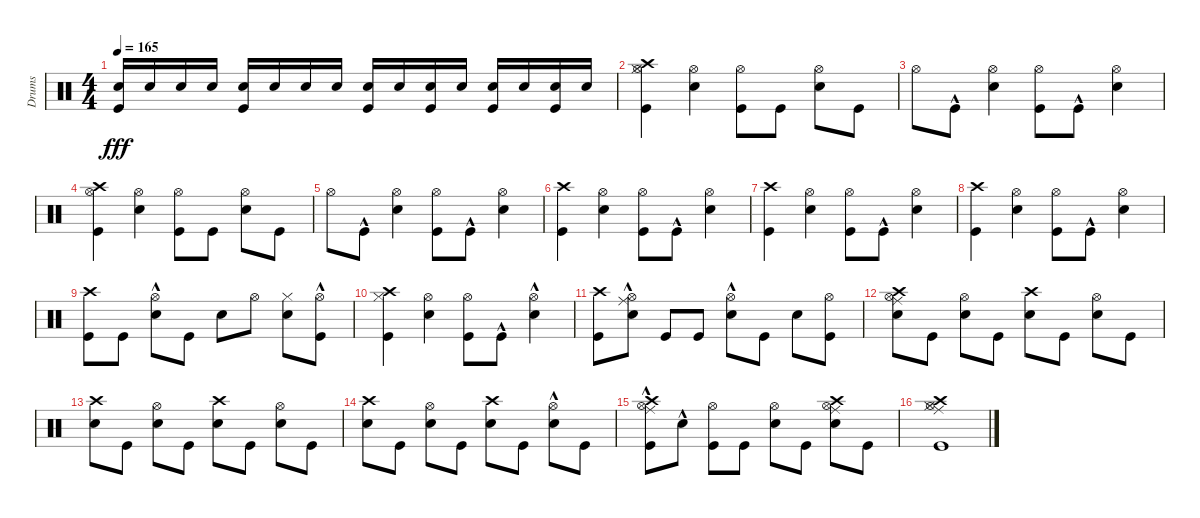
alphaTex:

\track ("Drums" "Drums") {instrument percussion}
\staff {score}
\articulation defaults
\ts (4 4)
\tempo 165
\clef neutral
\ks c
("Kick (hit)" "Snare (hit) 2").16{dy fff} "Snare (hit) 2".16 "Snare (hit) 2".16 "Snare (hit) 2".16 ("Kick (hit)" "Snare (hit) 2").16 "Snare (hit) 2".16 "Snare (hit) 2".16 "Snare (hit) 2".16 ("Kick (hit)" "Snare (hit) 2").16 "Snare (hit) 2".16 ("Kick (hit)" "Snare (hit) 2").16 "Snare (hit) 2".16 ("Kick (hit)" "Snare (hit) 2").16 "Snare (hit) 2".16 ("Kick (hit)" "Snare (hit) 2").16 "Snare (hit) 2".16 |
("Kick (hit)" "Hi-Hat (closed)" "Hi-Hat (open)" "Crash high (hit)").4 ("Snare (hit) 2" "Hi-Hat (open)").4 ("Kick (hit)" "Hi-Hat (open)").8 "Kick (hit)".8 ("Snare (hit) 2" "Hi-Hat (open)").8 "Kick (hit)".8 |
"Hi-Hat (open)".8 "Kick (hit)"{hac}.8 ("Snare (hit) 2" "Hi-Hat (open)").4 ("Kick (hit)" "Hi-Hat (open)").8 "Kick (hit)"{hac}.8 ("Snare (hit) 2" "Hi-Hat (open)").4 |
("Kick (hit)" "Hi-Hat (open)" "Crash high (hit)").4 ("Snare (hit) 2" "Hi-Hat (open)").4 ("Kick (hit)" "Hi-Hat (open)").8 "Kick (hit)".8 ("Snare (hit) 2" "Hi-Hat (open)").8 "Kick (hit)".8 |
"Hi-Hat (open)".8 "Kick (hit)"{hac}.8 ("Snare (hit) 2" "Hi-Hat (open)").4 ("Kick (hit)" "Hi-Hat (open)").8 "Kick (hit)"{hac}.8 ("Snare (hit) 2" "Hi-Hat (open)").4 |
("Kick (hit)" "Crash high (hit)").4 ("Snare (hit) 2" "Hi-Hat (open)").4 ("Kick (hit)" "Hi-Hat (open)").8 "Kick (hit)"{hac}.8 ("Snare (hit) 2" "Hi-Hat (open)").4 |
("Kick (hit)" "Crash high (hit)").4 ("Snare (hit) 2" "Hi-Hat (open)").4 ("Kick (hit)" "Hi-Hat (open)").8 "Kick (hit)"{hac}.8 ("Snare (hit) 2" "Hi-Hat (open)").4 |
("Kick (hit)" "Crash high (hit)").4 ("Snare (hit) 2" "Hi-Hat (open)").4 ("Kick (hit)" "Hi-Hat (open)").8 "Kick (hit)"{hac}.8 ("Snare (hit) 2" "Hi-Hat (open)").4 |
("Kick (hit)" "Crash high (hit)").8 "Kick (hit)".8 ("Snare (hit) 2" "Hi-Hat (open)"{hac}).8 "Kick (hit)".8 "Snare (hit) 2".8 "Hi-Hat (open)".8 ("Snare (hit) 2" "Hi-Hat (closed)").8 ("Kick (hit)" "Hi-Hat (open)"{hac}).8 |
("Kick (hit)" "Hi-Hat (closed)" "Crash high (hit)").4 ("Snare (hit) 2" "Hi-Hat (open)").4 ("Kick (hit)" "Hi-Hat (open)").8 "Kick (hit)"{hac}.8 ("Snare (hit) 2"{hac} "Hi-Hat (open)"{hac}).4 |
("Kick (hit)" "Crash high (hit)").8 ("Snare (hit) 2"{hac} "Hi-Hat (open)"{hac} "Ride (middle)"{hac}).8 "Kick (hit)".8 "Kick (hit)".8 ("Snare (hit) 2" "Hi-Hat (open)"{hac}).8 "Kick (hit)".8 "Snare (hit) 2".8 ("Kick (hit)" "Hi-Hat (open)").8 |
("Snare (hit) 2" "Hi-Hat (open)" "Ride (middle)" "Crash high (hit)").8 "Kick (hit)".8 ("Snare (hit) 2" "Hi-Hat (open)").8 "Kick (hit)".8 ("Snare (hit) 2" "Crash high (hit)").8 "Kick (hit)".8 ("Snare (hit) 2" "Hi-Hat (open)").8 "Kick (hit)".8 |
("Snare (hit) 2" "Crash high (hit)").8 "Kick (hit)".8 ("Snare (hit) 2" "Hi-Hat (open)").8 "Kick (hit)".8 ("Snare (hit) 2" "Crash high (hit)").8 "Kick (hit)".8 ("Snare (hit) 2" "Hi-Hat (open)").8 "Kick (hit)".8 |
("Snare (hit) 2" "Crash high (hit)").8 "Kick (hit)".8 ("Snare (hit) 2" "Hi-Hat (open)").8 "Kick (hit)".8 ("Snare (hit) 2" "Crash high (hit)").8 "Kick (hit)".8 ("Snare (hit) 2"{hac} "Hi-Hat (open)").8 "Kick (hit)".8 |
("Kick (hit)" "Hi-Hat (open)" "Ride (middle)"{hac} "Crash high (hit)"{hac}).8 "Snare (hit) 2"{hac}.8 ("Kick (hit)" "Hi-Hat (open)").8 "Kick (hit)".8 ("Snare (hit) 2" "Hi-Hat (open)").8 "Kick (hit)".8 ("Snare (hit) 2" "Hi-Hat (open)" "Ride (middle)" "Crash high (hit)").8 "Kick (hit)".8 |
("Kick (hit)" "Hi-Hat (closed)" "Hi-Hat (open)" "Ride (middle)" "Crash high (hit)").1
